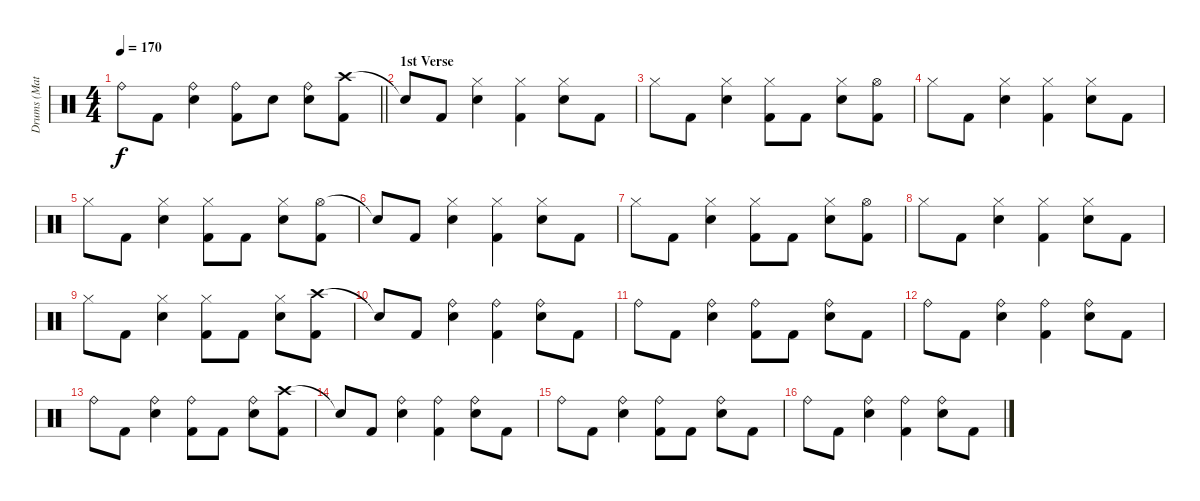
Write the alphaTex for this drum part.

\track ("Drums (Matt)" "Drums (Mat") {instrument percussion}
\staff {score}
\articulation defaults
\ts (4 4)
\tempo 170
\clef neutral
\barLineRight lightlight
\ks c "Ride (bell)".8{dy f} "Kick (hit) 2".8
("Ride (bell)" "Snare (hit) 2").4 ("Ride (bell)" "Kick (hit) 2").8 "Snare (hit) 2".8 ("Ride (bell)" "Snare (hit) 2").8 ("Crash high (hit)" "Kick (hit) 2").8 |
\section ("" "1st Verse")
"Snare (hit)"{t}.8 "Kick (hit) 2".8 ("Hi-Hat (closed)" "Snare (hit) 2").4 ("Hi-Hat (closed)" "Kick (hit) 2").4 ("Hi-Hat (closed)" "Snare (hit) 2").8 "Kick (hit) 2".8 |
"Hi-Hat (closed)".8 "Kick (hit) 2".8 ("Hi-Hat (closed)" "Snare (hit) 2").4 ("Hi-Hat (closed)" "Kick (hit) 2").8 "Kick (hit) 2".8 ("Hi-Hat (closed)" "Snare (hit) 2").8 ("Hi-Hat (open)" "Kick (hit) 2").8 |
"Hi-Hat (closed)".8 "Kick (hit) 2".8 ("Hi-Hat (closed)" "Snare (hit) 2").4 ("Hi-Hat (closed)" "Kick (hit) 2").4 ("Hi-Hat (closed)" "Snare (hit) 2").8 "Kick (hit) 2".8 |
"Hi-Hat (closed)".8 "Kick (hit) 2".8 ("Hi-Hat (closed)" "Snare (hit) 2").4 ("Hi-Hat (closed)" "Kick (hit) 2").8 "Kick (hit) 2".8 ("Hi-Hat (closed)" "Snare (hit) 2").8 ("Hi-Hat (open)" "Kick (hit) 2").8 |
"Snare (hit)"{t}.8 "Kick (hit) 2".8 ("Hi-Hat (closed)" "Snare (hit) 2").4 ("Hi-Hat (closed)" "Kick (hit) 2").4 ("Hi-Hat (closed)" "Snare (hit) 2").8 "Kick (hit) 2".8 |
"Hi-Hat (closed)".8 "Kick (hit) 2".8 ("Hi-Hat (closed)" "Snare (hit) 2").4 ("Hi-Hat (closed)" "Kick (hit) 2").8 "Kick (hit) 2".8 ("Hi-Hat (closed)" "Snare (hit) 2").8 ("Hi-Hat (open)" "Kick (hit) 2").8 |
"Hi-Hat (closed)".8 "Kick (hit) 2".8 ("Hi-Hat (closed)" "Snare (hit) 2").4 ("Hi-Hat (closed)" "Kick (hit) 2").4 ("Hi-Hat (closed)" "Snare (hit) 2").8 "Kick (hit) 2".8 |
"Hi-Hat (closed)".8 "Kick (hit) 2".8 ("Hi-Hat (closed)" "Snare (hit) 2").4 ("Hi-Hat (closed)" "Kick (hit) 2").8 "Kick (hit) 2".8 ("Hi-Hat (closed)" "Snare (hit) 2").8 ("Crash high (hit)" "Kick (hit) 2").8 |
"Snare (hit)"{t}.8 "Kick (hit) 2".8 ("Ride (bell)" "Snare (hit) 2").4 ("Ride (bell)" "Kick (hit) 2").4 ("Ride (bell)" "Snare (hit) 2").8 "Kick (hit) 2".8 |
"Ride (bell)".8 "Kick (hit) 2".8 ("Ride (bell)" "Snare (hit) 2").4 ("Ride (bell)" "Kick (hit) 2").8 "Kick (hit) 2".8 ("Ride (bell)" "Snare (hit) 2").8 "Kick (hit) 2".8 |
"Ride (bell)".8 "Kick (hit) 2".8 ("Ride (bell)" "Snare (hit) 2").4 ("Ride (bell)" "Kick (hit) 2").4 ("Ride (bell)" "Snare (hit) 2").8 "Kick (hit) 2".8 |
"Ride (bell)".8 "Kick (hit) 2".8 ("Ride (bell)" "Snare (hit) 2").4 ("Ride (bell)" "Kick (hit) 2").8 "Kick (hit) 2".8 ("Ride (bell)" "Snare (hit) 2").8 ("Crash high (hit)" "Kick (hit) 2").8 |
"Snare (hit)"{t}.8 "Kick (hit) 2".8 ("Ride (bell)" "Snare (hit) 2").4 ("Ride (bell)" "Kick (hit) 2").4 ("Ride (bell)" "Snare (hit) 2").8 "Kick (hit) 2".8 |
"Ride (bell)".8 "Kick (hit) 2".8 ("Ride (bell)" "Snare (hit) 2").4 ("Ride (bell)" "Kick (hit) 2").8 "Kick (hit) 2".8 ("Ride (bell)" "Snare (hit) 2").8 "Kick (hit) 2".8 |
"Ride (bell)".8 "Kick (hit) 2".8 ("Ride (bell)" "Snare (hit) 2").4 ("Ride (bell)" "Kick (hit) 2").4 ("Ride (bell)" "Snare (hit) 2").8 "Kick (hit) 2".8
